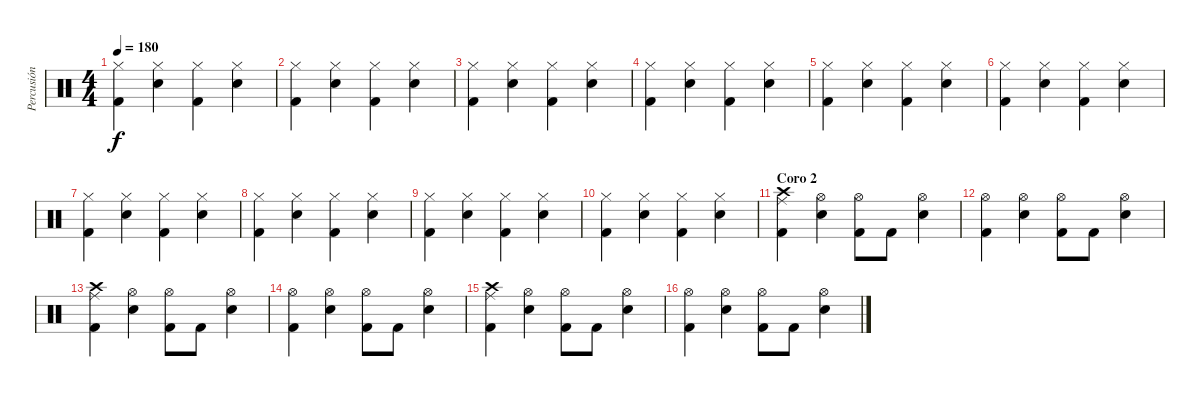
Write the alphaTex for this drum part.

\track ("Percusión" "Percusión") {instrument percussion}
\staff {score}
\articulation defaults
\ts (4 4)
\tempo 180
\clef neutral
\ks c
("Hi-Hat (closed)" "Kick (hit) 2").4{dy f} ("Hi-Hat (closed)" "Electric Snare (hit)").4 ("Hi-Hat (closed)" "Kick (hit) 2").4 ("Hi-Hat (closed)" "Electric Snare (hit)").4 |
("Hi-Hat (closed)" "Kick (hit) 2").4 ("Hi-Hat (closed)" "Electric Snare (hit)").4 ("Hi-Hat (closed)" "Kick (hit) 2").4 ("Hi-Hat (closed)" "Electric Snare (hit)").4 |
("Hi-Hat (closed)" "Kick (hit) 2").4 ("Hi-Hat (closed)" "Electric Snare (hit)").4 ("Hi-Hat (closed)" "Kick (hit) 2").4 ("Hi-Hat (closed)" "Electric Snare (hit)").4 |
("Hi-Hat (closed)" "Kick (hit) 2").4 ("Hi-Hat (closed)" "Electric Snare (hit)").4 ("Hi-Hat (closed)" "Kick (hit) 2").4 ("Hi-Hat (closed)" "Electric Snare (hit)").4 |
("Hi-Hat (closed)" "Kick (hit) 2").4 ("Hi-Hat (closed)" "Electric Snare (hit)").4 ("Hi-Hat (closed)" "Kick (hit) 2").4 ("Hi-Hat (closed)" "Electric Snare (hit)").4 |
("Hi-Hat (closed)" "Kick (hit) 2").4 ("Hi-Hat (closed)" "Electric Snare (hit)").4 ("Hi-Hat (closed)" "Kick (hit) 2").4 ("Hi-Hat (closed)" "Electric Snare (hit)").4 |
("Hi-Hat (closed)" "Kick (hit) 2").4 ("Hi-Hat (closed)" "Electric Snare (hit)").4 ("Hi-Hat (closed)" "Kick (hit) 2").4 ("Hi-Hat (closed)" "Electric Snare (hit)").4 |
("Hi-Hat (closed)" "Kick (hit) 2").4 ("Hi-Hat (closed)" "Electric Snare (hit)").4 ("Hi-Hat (closed)" "Kick (hit) 2").4 ("Hi-Hat (closed)" "Electric Snare (hit)").4 |
("Hi-Hat (closed)" "Kick (hit) 2").4 ("Hi-Hat (closed)" "Electric Snare (hit)").4 ("Hi-Hat (closed)" "Kick (hit) 2").4 ("Hi-Hat (closed)" "Electric Snare (hit)").4 |
("Hi-Hat (closed)" "Kick (hit) 2").4 ("Hi-Hat (closed)" "Electric Snare (hit)").4 ("Hi-Hat (closed)" "Kick (hit) 2").4 ("Hi-Hat (closed)" "Electric Snare (hit)").4 |
\section ("" "Coro 2")
("Ride (middle)" "Crash high (hit)" "Kick (hit) 2").4 ("Hi-Hat (open)" "Electric Snare (hit)").4 ("Hi-Hat (open)" "Kick (hit) 2").8 "Kick (hit) 2".8 ("Hi-Hat (open)" "Electric Snare (hit)").4 |
("Hi-Hat (open)" "Kick (hit) 2").4 ("Hi-Hat (open)" "Electric Snare (hit)").4 ("Hi-Hat (open)" "Kick (hit) 2").8 "Kick (hit) 2".8 ("Hi-Hat (open)" "Electric Snare (hit)").4 |
("Ride (middle)" "Crash high (hit)" "Kick (hit) 2").4 ("Hi-Hat (open)" "Electric Snare (hit)").4 ("Hi-Hat (open)" "Kick (hit) 2").8 "Kick (hit) 2".8 ("Hi-Hat (open)" "Electric Snare (hit)").4 |
("Hi-Hat (open)" "Kick (hit) 2").4 ("Hi-Hat (open)" "Electric Snare (hit)").4 ("Hi-Hat (open)" "Kick (hit) 2").8 "Kick (hit) 2".8 ("Hi-Hat (open)" "Electric Snare (hit)").4 |
("Ride (middle)" "Crash high (hit)" "Kick (hit) 2").4 ("Hi-Hat (open)" "Electric Snare (hit)").4 ("Hi-Hat (open)" "Kick (hit) 2").8 "Kick (hit) 2".8 ("Hi-Hat (open)" "Electric Snare (hit)").4 |
("Hi-Hat (open)" "Kick (hit) 2").4 ("Hi-Hat (open)" "Electric Snare (hit)").4 ("Hi-Hat (open)" "Kick (hit) 2").8 "Kick (hit) 2".8 ("Hi-Hat (open)" "Electric Snare (hit)").4
